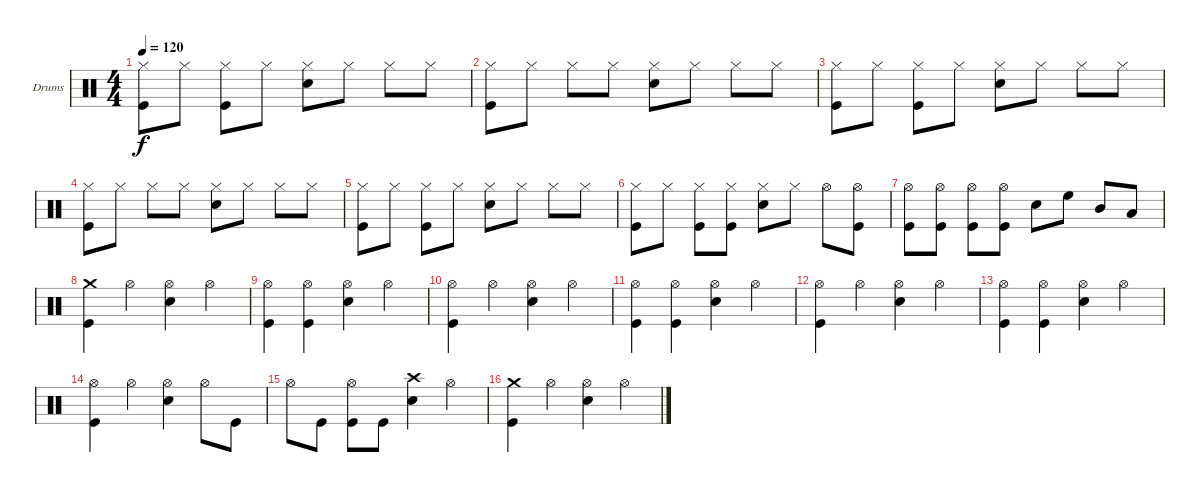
\bracketExtendMode groupsimilarinstruments
\firstSystemTrackNameOrientation horizontal
\otherSystemsTrackNameOrientation horizontal
\track ("Drumkit (Christoph)" "Drums") {instrument percussion}
\staff {score}
\articulation defaults
\ts (4 4)
\tempo 120
\clef neutral
\ks c
("Hi-Hat (closed)" "Kick (hit)").8{dy f} "Hi-Hat (closed)".8 ("Hi-Hat (closed)" "Kick (hit)").8 "Hi-Hat (closed)".8 ("Hi-Hat (closed)" "Snare (hit) 2").8 "Hi-Hat (closed)".8 "Hi-Hat (closed)".8 "Hi-Hat (closed)".8 |
("Hi-Hat (closed)" "Kick (hit)").8 "Hi-Hat (closed)".8 "Hi-Hat (closed)".8 "Hi-Hat (closed)".8 ("Hi-Hat (closed)" "Snare (hit) 2").8 "Hi-Hat (closed)".8 "Hi-Hat (closed)".8 "Hi-Hat (closed)".8 |
("Hi-Hat (closed)" "Kick (hit)").8 "Hi-Hat (closed)".8 ("Hi-Hat (closed)" "Kick (hit)").8 "Hi-Hat (closed)".8 ("Hi-Hat (closed)" "Snare (hit) 2").8 "Hi-Hat (closed)".8 "Hi-Hat (closed)".8 "Hi-Hat (closed)".8 |
("Hi-Hat (closed)" "Kick (hit)").8 "Hi-Hat (closed)".8 "Hi-Hat (closed)".8 "Hi-Hat (closed)".8 ("Hi-Hat (closed)" "Snare (hit) 2").8 "Hi-Hat (closed)".8 "Hi-Hat (closed)".8 "Hi-Hat (closed)".8 |
("Hi-Hat (closed)" "Kick (hit)").8 "Hi-Hat (closed)".8 ("Hi-Hat (closed)" "Kick (hit)").8 "Hi-Hat (closed)".8 ("Hi-Hat (closed)" "Snare (hit) 2").8 "Hi-Hat (closed)".8 "Hi-Hat (closed)".8 "Hi-Hat (closed)".8 |
("Hi-Hat (closed)" "Kick (hit)").8 "Hi-Hat (closed)".8 ("Hi-Hat (closed)" "Kick (hit)").8 ("Hi-Hat (closed)" "Kick (hit)").8 ("Hi-Hat (closed)" "Snare (hit) 2").8 "Hi-Hat (closed)".8 "Hi-Hat (open)".8 ("Hi-Hat (open)" "Kick (hit)").8 |
("Hi-Hat (open)" "Kick (hit)").8 ("Hi-Hat (open)" "Kick (hit)").8 ("Hi-Hat (open)" "Kick (hit)").8 ("Hi-Hat (open)" "Kick (hit)").8 "Snare (hit) 2".8 "High Floor Tom (hit)".8 "Mid Tom (hit)".8 "Low Tom (hit)".8 |
("Crash medium (hit)" "Kick (hit)").4 "Hi-Hat (open)".4 ("Hi-Hat (open)" "Snare (hit) 2").4 "Hi-Hat (open)".4 |
("Hi-Hat (open)" "Kick (hit)").4 ("Hi-Hat (open)" "Kick (hit)").4 ("Hi-Hat (open)" "Snare (hit) 2").4 "Hi-Hat (open)".4 |
("Hi-Hat (open)" "Kick (hit)").4 "Hi-Hat (open)".4 ("Hi-Hat (open)" "Snare (hit) 2").4 "Hi-Hat (open)".4 |
("Hi-Hat (open)" "Kick (hit)").4 ("Hi-Hat (open)" "Kick (hit)").4 ("Hi-Hat (open)" "Snare (hit) 2").4 "Hi-Hat (open)".4 |
("Hi-Hat (open)" "Kick (hit)").4 "Hi-Hat (open)".4 ("Hi-Hat (open)" "Snare (hit) 2").4 "Hi-Hat (open)".4 |
("Hi-Hat (open)" "Kick (hit)").4 ("Hi-Hat (open)" "Kick (hit)").4 ("Hi-Hat (open)" "Snare (hit) 2").4 "Hi-Hat (open)".4 |
("Hi-Hat (open)" "Kick (hit)").4 "Hi-Hat (open)".4 ("Hi-Hat (open)" "Snare (hit) 2").4 "Hi-Hat (open)".8 "Kick (hit)".8 |
"Hi-Hat (open)".8 "Kick (hit)".8 ("Hi-Hat (open)" "Kick (hit)").8 "Kick (hit)".8 ("Crash high (hit)" "Snare (hit) 2").4 "Hi-Hat (open)".4 |
("Crash medium (hit)" "Kick (hit)").4 "Hi-Hat (open)".4 ("Hi-Hat (open)" "Snare (hit) 2").4 "Hi-Hat (open)".4
